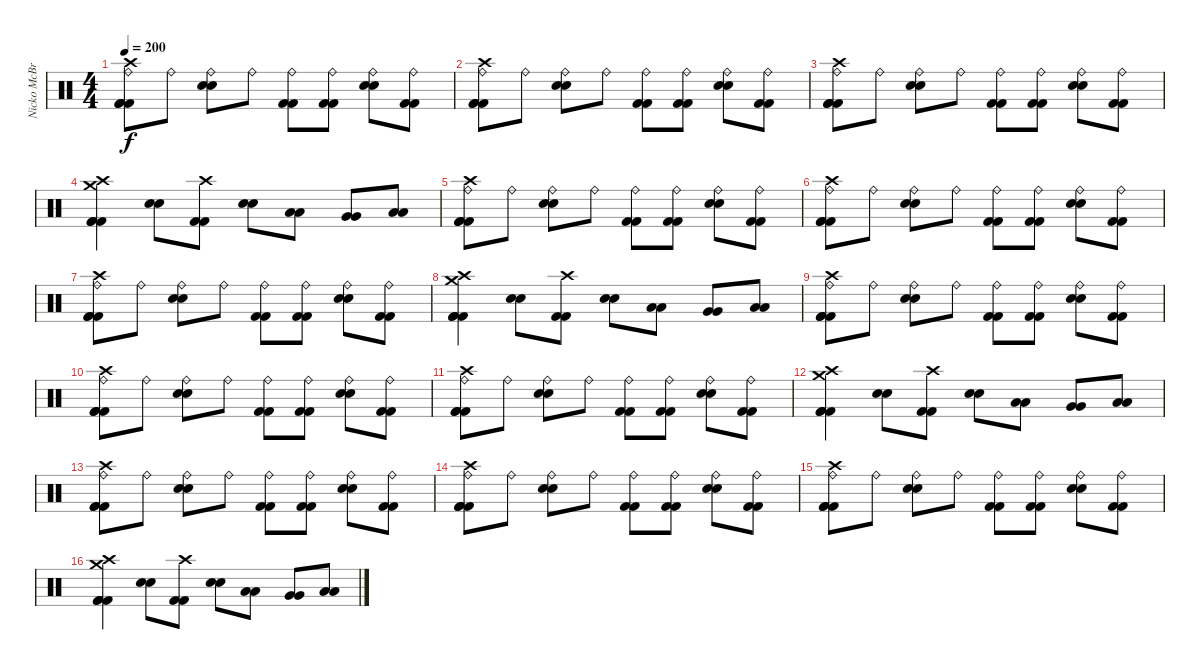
\track ("Nicko McBrain" "Nicko McBr") {instrument percussion}
\staff {score}
\articulation defaults
\ts (4 4)
\tempo 200
\clef neutral
\ks c
("Crash high (hit)" "Ride (bell)" "Kick (hit) 2" "Kick (hit) 2" "Kick (hit) 2").8{dy f} "Ride (bell)".8 ("Ride (bell)" "Snare (hit) 2" "Snare (hit) 2").8 "Ride (bell)".8 ("Ride (bell)" "Kick (hit) 2" "Kick (hit) 2").8 ("Ride (bell)" "Kick (hit) 2" "Kick (hit) 2").8 ("Ride (bell)" "Snare (hit) 2" "Snare (hit) 2").8 ("Ride (bell)" "Kick (hit) 2" "Kick (hit) 2").8 |
("Crash high (hit)" "Ride (bell)" "Kick (hit) 2" "Kick (hit) 2" "Kick (hit) 2").8 "Ride (bell)".8 ("Ride (bell)" "Snare (hit) 2" "Snare (hit) 2").8 "Ride (bell)".8 ("Ride (bell)" "Kick (hit) 2" "Kick (hit) 2").8 ("Ride (bell)" "Kick (hit) 2" "Kick (hit) 2").8 ("Ride (bell)" "Snare (hit) 2" "Snare (hit) 2").8 ("Ride (bell)" "Kick (hit) 2" "Kick (hit) 2").8 |
("Crash high (hit)" "Ride (bell)" "Kick (hit) 2" "Kick (hit) 2" "Kick (hit) 2").8 "Ride (bell)".8 ("Ride (bell)" "Snare (hit) 2" "Snare (hit) 2").8 "Ride (bell)".8 ("Ride (bell)" "Kick (hit) 2" "Kick (hit) 2").8 ("Ride (bell)" "Kick (hit) 2" "Kick (hit) 2").8 ("Ride (bell)" "Snare (hit) 2" "Snare (hit) 2").8 ("Ride (bell)" "Kick (hit) 2" "Kick (hit) 2").8 |
("Crash medium (hit)" "Crash high (hit)" "Kick (hit) 2" "Kick (hit) 2" "Kick (hit) 2").4 ("Snare (hit) 2" "Snare (hit) 2").8 ("Crash high (hit)" "Kick (hit) 2" "Kick (hit) 2").8 ("Snare (hit) 2" "Snare (hit) 2").8 ("Low Tom (hit)" "Low Tom (hit)").8 ("Very Low Tom (hit)" "Very Low Tom (hit)").8 ("Low Floor Tom (hit)" "Low Floor Tom (hit)").8 |
("Crash high (hit)" "Ride (bell)" "Kick (hit) 2" "Kick (hit) 2" "Kick (hit) 2").8 "Ride (bell)".8 ("Ride (bell)" "Snare (hit) 2" "Snare (hit) 2").8 "Ride (bell)".8 ("Ride (bell)" "Kick (hit) 2" "Kick (hit) 2").8 ("Ride (bell)" "Kick (hit) 2" "Kick (hit) 2").8 ("Ride (bell)" "Snare (hit) 2" "Snare (hit) 2").8 ("Ride (bell)" "Kick (hit) 2" "Kick (hit) 2").8 |
("Crash high (hit)" "Ride (bell)" "Kick (hit) 2" "Kick (hit) 2" "Kick (hit) 2").8 "Ride (bell)".8 ("Ride (bell)" "Snare (hit) 2" "Snare (hit) 2").8 "Ride (bell)".8 ("Ride (bell)" "Kick (hit) 2" "Kick (hit) 2").8 ("Ride (bell)" "Kick (hit) 2" "Kick (hit) 2").8 ("Ride (bell)" "Snare (hit) 2" "Snare (hit) 2").8 ("Ride (bell)" "Kick (hit) 2" "Kick (hit) 2").8 |
("Crash high (hit)" "Ride (bell)" "Kick (hit) 2" "Kick (hit) 2" "Kick (hit) 2").8 "Ride (bell)".8 ("Ride (bell)" "Snare (hit) 2" "Snare (hit) 2").8 "Ride (bell)".8 ("Ride (bell)" "Kick (hit) 2" "Kick (hit) 2").8 ("Ride (bell)" "Kick (hit) 2" "Kick (hit) 2").8 ("Ride (bell)" "Snare (hit) 2" "Snare (hit) 2").8 ("Ride (bell)" "Kick (hit) 2" "Kick (hit) 2").8 |
("Crash medium (hit)" "Crash high (hit)" "Kick (hit) 2" "Kick (hit) 2" "Kick (hit) 2").4 ("Snare (hit) 2" "Snare (hit) 2").8 ("Crash high (hit)" "Kick (hit) 2" "Kick (hit) 2").8 ("Snare (hit) 2" "Snare (hit) 2").8 ("Low Tom (hit)" "Low Tom (hit)").8 ("Very Low Tom (hit)" "Very Low Tom (hit)").8 ("Low Floor Tom (hit)" "Low Floor Tom (hit)").8 |
("Crash high (hit)" "Ride (bell)" "Kick (hit) 2" "Kick (hit) 2" "Kick (hit) 2").8 "Ride (bell)".8 ("Ride (bell)" "Snare (hit) 2" "Snare (hit) 2").8 "Ride (bell)".8 ("Ride (bell)" "Kick (hit) 2" "Kick (hit) 2").8 ("Ride (bell)" "Kick (hit) 2" "Kick (hit) 2").8 ("Ride (bell)" "Snare (hit) 2" "Snare (hit) 2").8 ("Ride (bell)" "Kick (hit) 2" "Kick (hit) 2").8 |
("Crash high (hit)" "Ride (bell)" "Kick (hit) 2" "Kick (hit) 2" "Kick (hit) 2").8 "Ride (bell)".8 ("Ride (bell)" "Snare (hit) 2" "Snare (hit) 2").8 "Ride (bell)".8 ("Ride (bell)" "Kick (hit) 2" "Kick (hit) 2").8 ("Ride (bell)" "Kick (hit) 2" "Kick (hit) 2").8 ("Ride (bell)" "Snare (hit) 2" "Snare (hit) 2").8 ("Ride (bell)" "Kick (hit) 2" "Kick (hit) 2").8 |
("Crash high (hit)" "Ride (bell)" "Kick (hit) 2" "Kick (hit) 2" "Kick (hit) 2").8 "Ride (bell)".8 ("Ride (bell)" "Snare (hit) 2" "Snare (hit) 2").8 "Ride (bell)".8 ("Ride (bell)" "Kick (hit) 2" "Kick (hit) 2").8 ("Ride (bell)" "Kick (hit) 2" "Kick (hit) 2").8 ("Ride (bell)" "Snare (hit) 2" "Snare (hit) 2").8 ("Ride (bell)" "Kick (hit) 2" "Kick (hit) 2").8 |
("Crash medium (hit)" "Crash high (hit)" "Kick (hit) 2" "Kick (hit) 2" "Kick (hit) 2").4 ("Snare (hit) 2" "Snare (hit) 2").8 ("Crash high (hit)" "Kick (hit) 2" "Kick (hit) 2").8 ("Snare (hit) 2" "Snare (hit) 2").8 ("Low Tom (hit)" "Low Tom (hit)").8 ("Very Low Tom (hit)" "Very Low Tom (hit)").8 ("Low Floor Tom (hit)" "Low Floor Tom (hit)").8 |
("Crash high (hit)" "Ride (bell)" "Kick (hit) 2" "Kick (hit) 2" "Kick (hit) 2").8 "Ride (bell)".8 ("Ride (bell)" "Snare (hit) 2" "Snare (hit) 2").8 "Ride (bell)".8 ("Ride (bell)" "Kick (hit) 2" "Kick (hit) 2").8 ("Ride (bell)" "Kick (hit) 2" "Kick (hit) 2").8 ("Ride (bell)" "Snare (hit) 2" "Snare (hit) 2").8 ("Ride (bell)" "Kick (hit) 2" "Kick (hit) 2").8 |
("Crash high (hit)" "Ride (bell)" "Kick (hit) 2" "Kick (hit) 2" "Kick (hit) 2").8 "Ride (bell)".8 ("Ride (bell)" "Snare (hit) 2" "Snare (hit) 2").8 "Ride (bell)".8 ("Ride (bell)" "Kick (hit) 2" "Kick (hit) 2").8 ("Ride (bell)" "Kick (hit) 2" "Kick (hit) 2").8 ("Ride (bell)" "Snare (hit) 2" "Snare (hit) 2").8 ("Ride (bell)" "Kick (hit) 2" "Kick (hit) 2").8 |
("Crash high (hit)" "Ride (bell)" "Kick (hit) 2" "Kick (hit) 2" "Kick (hit) 2").8 "Ride (bell)".8 ("Ride (bell)" "Snare (hit) 2" "Snare (hit) 2").8 "Ride (bell)".8 ("Ride (bell)" "Kick (hit) 2" "Kick (hit) 2").8 ("Ride (bell)" "Kick (hit) 2" "Kick (hit) 2").8 ("Ride (bell)" "Snare (hit) 2" "Snare (hit) 2").8 ("Ride (bell)" "Kick (hit) 2" "Kick (hit) 2").8 |
("Crash medium (hit)" "Crash high (hit)" "Kick (hit) 2" "Kick (hit) 2" "Kick (hit) 2").4 ("Snare (hit) 2" "Snare (hit) 2").8 ("Crash high (hit)" "Kick (hit) 2" "Kick (hit) 2").8 ("Snare (hit) 2" "Snare (hit) 2").8 ("Low Tom (hit)" "Low Tom (hit)").8 ("Very Low Tom (hit)" "Very Low Tom (hit)").8 ("Low Floor Tom (hit)" "Low Floor Tom (hit)").8
